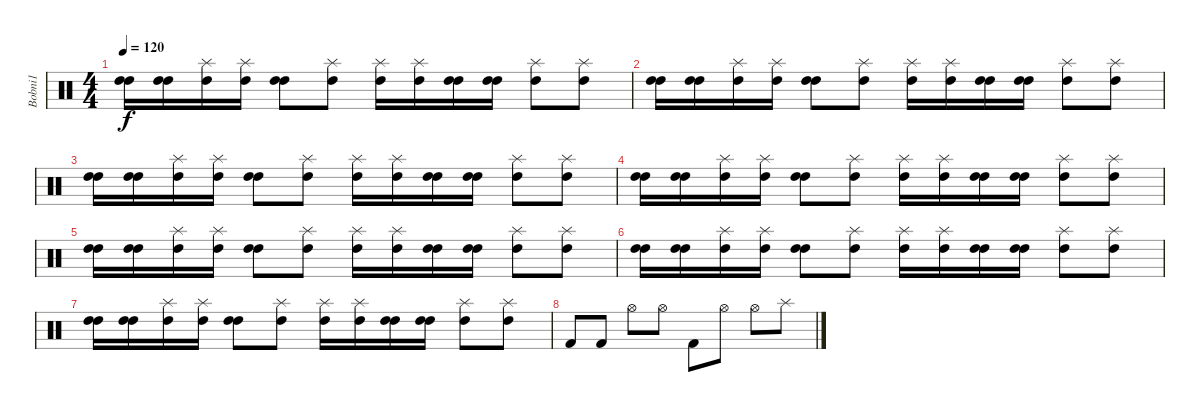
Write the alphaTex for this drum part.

\track ("Bobni1" "Bobni1") {instrument percussion}
\staff {score}
\articulation defaults
\ts (4 4)
\tempo 120
\clef neutral
\ks c
("High Tom (hit)" "High Tom (hit)").16{dy f} ("High Tom (hit)" "High Tom (hit)").16 ("High Tom (hit)" "Splash (hit)").16 ("High Tom (hit)" "Splash (hit)").16 ("High Tom (hit)" "High Tom (hit)").8 ("High Tom (hit)" "Splash (hit)").8 ("High Tom (hit)" "Splash (hit)").16 ("Splash (hit)" "High Tom (hit)").16 ("High Tom (hit)" "High Tom (hit)").16 ("High Tom (hit)" "High Tom (hit)").16 ("High Tom (hit)" "Splash (hit)").8 ("High Tom (hit)" "Splash (hit)").8 |
("High Tom (hit)" "High Tom (hit)").16 ("High Tom (hit)" "High Tom (hit)").16 ("High Tom (hit)" "Splash (hit)").16 ("High Tom (hit)" "Splash (hit)").16 ("High Tom (hit)" "High Tom (hit)").8 ("High Tom (hit)" "Splash (hit)").8 ("High Tom (hit)" "Splash (hit)").16 ("Splash (hit)" "High Tom (hit)").16 ("High Tom (hit)" "High Tom (hit)").16 ("High Tom (hit)" "High Tom (hit)").16 ("High Tom (hit)" "Splash (hit)").8 ("High Tom (hit)" "Splash (hit)").8 |
("High Tom (hit)" "High Tom (hit)").16 ("High Tom (hit)" "High Tom (hit)").16 ("High Tom (hit)" "Splash (hit)").16 ("High Tom (hit)" "Splash (hit)").16 ("High Tom (hit)" "High Tom (hit)").8 ("High Tom (hit)" "Splash (hit)").8 ("High Tom (hit)" "Splash (hit)").16 ("Splash (hit)" "High Tom (hit)").16 ("High Tom (hit)" "High Tom (hit)").16 ("High Tom (hit)" "High Tom (hit)").16 ("High Tom (hit)" "Splash (hit)").8 ("High Tom (hit)" "Splash (hit)").8 |
("High Tom (hit)" "High Tom (hit)").16 ("High Tom (hit)" "High Tom (hit)").16 ("High Tom (hit)" "Splash (hit)").16 ("High Tom (hit)" "Splash (hit)").16 ("High Tom (hit)" "High Tom (hit)").8 ("High Tom (hit)" "Splash (hit)").8 ("High Tom (hit)" "Splash (hit)").16 ("Splash (hit)" "High Tom (hit)").16 ("High Tom (hit)" "High Tom (hit)").16 ("High Tom (hit)" "High Tom (hit)").16 ("High Tom (hit)" "Splash (hit)").8 ("High Tom (hit)" "Splash (hit)").8 |
("High Tom (hit)" "High Tom (hit)").16 ("High Tom (hit)" "High Tom (hit)").16 ("High Tom (hit)" "Splash (hit)").16 ("High Tom (hit)" "Splash (hit)").16 ("High Tom (hit)" "High Tom (hit)").8 ("High Tom (hit)" "Splash (hit)").8 ("High Tom (hit)" "Splash (hit)").16 ("Splash (hit)" "High Tom (hit)").16 ("High Tom (hit)" "High Tom (hit)").16 ("High Tom (hit)" "High Tom (hit)").16 ("High Tom (hit)" "Splash (hit)").8 ("High Tom (hit)" "Splash (hit)").8 |
("High Tom (hit)" "High Tom (hit)").16 ("High Tom (hit)" "High Tom (hit)").16 ("High Tom (hit)" "Splash (hit)").16 ("High Tom (hit)" "Splash (hit)").16 ("High Tom (hit)" "High Tom (hit)").8 ("High Tom (hit)" "Splash (hit)").8 ("High Tom (hit)" "Splash (hit)").16 ("Splash (hit)" "High Tom (hit)").16 ("High Tom (hit)" "High Tom (hit)").16 ("High Tom (hit)" "High Tom (hit)").16 ("High Tom (hit)" "Splash (hit)").8 ("High Tom (hit)" "Splash (hit)").8 |
("High Tom (hit)" "High Tom (hit)").16 ("High Tom (hit)" "High Tom (hit)").16 ("High Tom (hit)" "Splash (hit)").16 ("High Tom (hit)" "Splash (hit)").16 ("High Tom (hit)" "High Tom (hit)").8 ("High Tom (hit)" "Splash (hit)").8 ("High Tom (hit)" "Splash (hit)").16 ("Splash (hit)" "High Tom (hit)").16 ("High Tom (hit)" "High Tom (hit)").16 ("High Tom (hit)" "High Tom (hit)").16 ("High Tom (hit)" "Splash (hit)").8 ("High Tom (hit)" "Splash (hit)").8 |
"Kick (hit) 2".8 "Kick (hit) 2".8 "Hi-Hat (open)".8 "Hi-Hat (open)".8 "Kick (hit) 2".8 "Hi-Hat (open)".8 "Hi-Hat (open)".8 "Splash (hit)".8
